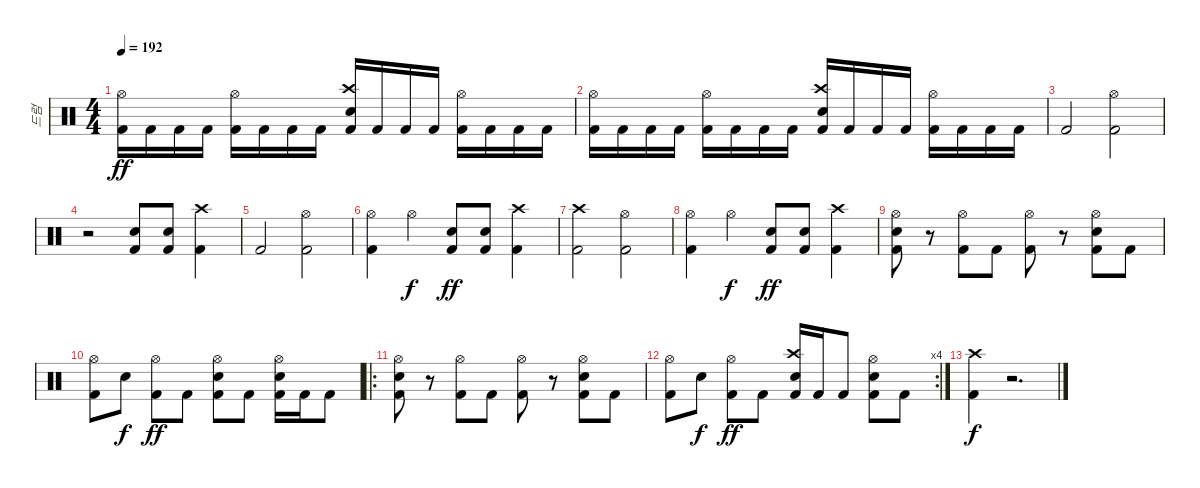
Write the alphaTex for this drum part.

\track ("드럼" "드럼") {instrument percussion}
\staff {score}
\articulation defaults
\ts (4 4)
\tempo 192
\clef neutral
\ks c
("Hi-Hat (open)" "Kick (hit) 2").16{dy ff} "Kick (hit) 2".16 "Kick (hit) 2".16 "Kick (hit) 2".16 ("Hi-Hat (open)" "Kick (hit) 2").16 "Kick (hit) 2".16 "Kick (hit) 2".16 "Kick (hit) 2".16 ("Crash high (hit)" "Electric Snare (hit)" "Kick (hit) 2").16 "Kick (hit) 2".16 "Kick (hit) 2".16 "Kick (hit) 2".16 ("Hi-Hat (open)" "Kick (hit) 2").16 "Kick (hit) 2".16 "Kick (hit) 2".16 "Kick (hit) 2".16 |
("Hi-Hat (open)" "Kick (hit) 2").16 "Kick (hit) 2".16 "Kick (hit) 2".16 "Kick (hit) 2".16 ("Hi-Hat (open)" "Kick (hit) 2").16 "Kick (hit) 2".16 "Kick (hit) 2".16 "Kick (hit) 2".16 ("Crash high (hit)" "Electric Snare (hit)" "Kick (hit) 2").16 "Kick (hit) 2".16 "Kick (hit) 2".16 "Kick (hit) 2".16 ("Hi-Hat (open)" "Kick (hit) 2").16 "Kick (hit) 2".16 "Kick (hit) 2".16 "Kick (hit) 2".16 |
"Kick (hit) 2".2 ("Hi-Hat (open)" "Kick (hit) 2").2 |
r.2 ("Snare (hit) 2" "Kick (hit) 2").8 ("Snare (hit) 2" "Kick (hit) 2").8 ("Crash high (hit)" "Kick (hit) 2").4 |
"Kick (hit) 2".2 ("Hi-Hat (open)" "Kick (hit) 2").2 |
("Hi-Hat (open)" "Kick (hit) 2").4 "Hi-Hat (open)".4{dy f} ("Snare (hit) 2" "Kick (hit) 2").8{dy ff} ("Snare (hit) 2" "Kick (hit) 2").8 ("Crash high (hit)" "Kick (hit) 2").4 |
("Crash high (hit)" "Kick (hit) 2").2 ("Hi-Hat (open)" "Kick (hit) 2").2 |
("Hi-Hat (open)" "Kick (hit) 2").4 "Hi-Hat (open)".4{dy f} ("Snare (hit) 2" "Kick (hit) 2").8{dy ff} ("Snare (hit) 2" "Kick (hit) 2").8 ("Crash high (hit)" "Kick (hit) 2").4 |
("Hi-Hat (open)" "Electric Snare (hit)" "Kick (hit) 2").8 r.8 ("Hi-Hat (open)" "Kick (hit) 2").8 "Kick (hit) 2".8 ("Hi-Hat (open)" "Kick (hit) 2").8 r.8 ("Hi-Hat (open)" "Electric Snare (hit)" "Kick (hit) 2").8 "Kick (hit) 2".8 |
("Hi-Hat (open)" "Kick (hit) 2").8 "Electric Snare (hit)".8{dy f} ("Hi-Hat (open)" "Kick (hit) 2").8{dy ff} "Kick (hit) 2".8 ("Hi-Hat (open)" "Electric Snare (hit)" "Kick (hit) 2").8 "Kick (hit) 2".8 ("Hi-Hat (open)" "Electric Snare (hit)" "Kick (hit) 2").16 "Kick (hit) 2".16 "Kick (hit) 2".8 |
\ro
("Hi-Hat (open)" "Electric Snare (hit)" "Kick (hit) 2").8 r.8 ("Hi-Hat (open)" "Kick (hit) 2").8 "Kick (hit) 2".8 ("Hi-Hat (open)" "Kick (hit) 2").8 r.8 ("Hi-Hat (open)" "Electric Snare (hit)" "Kick (hit) 2").8 "Kick (hit) 2".8 |
\rc 4
("Hi-Hat (open)" "Kick (hit) 2").8 "Electric Snare (hit)".8{dy f} ("Hi-Hat (open)" "Kick (hit) 2").8{dy ff} "Kick (hit) 2".8 ("Crash high (hit)" "Electric Snare (hit)" "Kick (hit) 2").16 "Kick (hit) 2".16 "Kick (hit) 2".8 ("Hi-Hat (open)" "Electric Snare (hit)" "Kick (hit) 2").8 "Kick (hit) 2".8 |
("Crash high (hit)" "Kick (hit) 2").4{dy f} r.2{d}
